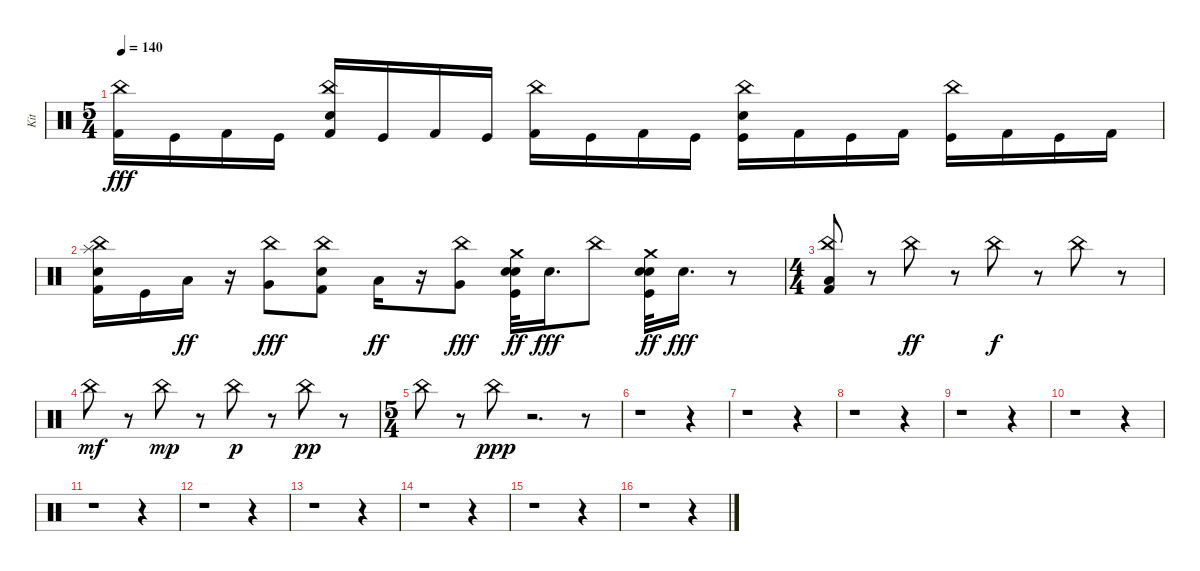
\track ("Kit" "Kit") {instrument percussion}
\staff {score}
\articulation defaults
\ts (5 4)
\tempo 140
\clef neutral
\ks c
("Kick (hit) 2" "China (hit)").16{dy fff} "Kick (hit)".16 "Kick (hit) 2".16 "Kick (hit)".16 ("Kick (hit) 2" "Snare (hit) 2" "China (hit)").16 "Kick (hit)".16 "Kick (hit) 2".16 "Kick (hit)".16 ("Kick (hit) 2" "China (hit)").16 "Kick (hit)".16 "Kick (hit) 2".16 "Kick (hit)".16 ("Kick (hit)" "Snare (hit) 2" "China (hit)").16 "Kick (hit) 2".16 "Kick (hit)".16 "Kick (hit) 2".16 ("Kick (hit)" "China (hit)").16 "Kick (hit) 2".16 "Kick (hit)".16 "Kick (hit) 2".16 |
("Kick (hit) 2" "Snare (hit) 2" "China (hit)" "Splash (hit)").16 "Kick (hit)".16 "Low Tom (hit)".16{dy ff} r.16 ("Very Low Tom (hit)" "China (hit)").8{dy fff} ("Kick (hit) 2" "Snare (hit) 2" "China (hit)").8 "Low Tom (hit)".16{dy ff} r.16 ("Very Low Tom (hit)" "China (hit)").8{dy fff} ("Kick (hit)" "Snare (hit) 2" "Snare (hit) 2" "Crash medium (hit)").32{dy ff} "Snare (hit) 2".16{d dy fff} "China (hit)".8 ("Kick (hit)" "Snare (hit) 2" "Snare (hit) 2" "Crash medium (hit)").32{dy ff} "Snare (hit) 2".16{d dy fff} r.8 |
\ts (4 4)
("Kick (hit) 2" "Low Floor Tom (hit)" "China (hit)").8 r.8 "China (hit)".8{dy ff} r.8 "China (hit)".8{dy f} r.8 "China (hit)".8 r.8 |
"China (hit)".8{dy mf} r.8 "China (hit)".8{dy mp} r.8 "China (hit)".8{dy p} r.8 "China (hit)".8{dy pp} r.8 |
\ts (5 4)
"China (hit)".8 r.8 "China (hit)".8{dy ppp} r.2{d} r.8 |
r.1 r.4 |
r.1 r.4 |
r.1 r.4 |
r.1 r.4 |
r.1 r.4 |
r.1 r.4 |
r.1 r.4 |
r.1 r.4 |
r.1 r.4 |
r.1 r.4 |
r.1 r.4
